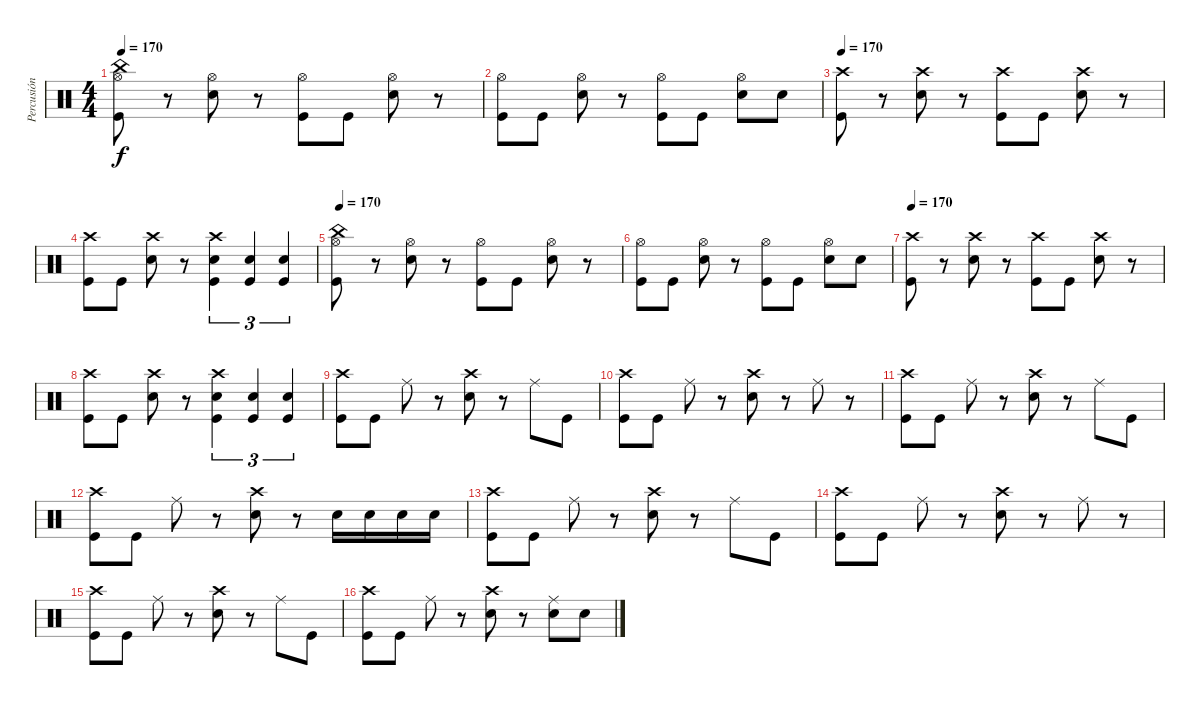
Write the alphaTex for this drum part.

\track ("Percusión  Gabriela" "Percusión ") {instrument percussion}
\staff {score}
\articulation defaults
\ts (4 4)
\tempo 170
\clef neutral
\ks c
("Hi-Hat (open)" "China (hit)" "Kick (hit)").8{dy f} r.8 ("Hi-Hat (open)" "Snare (hit) 2").8 r.8 ("Hi-Hat (open)" "Kick (hit)").8 "Kick (hit)".8 ("Snare (hit) 2" "Hi-Hat (open)").8 r.8 |
("Hi-Hat (open)" "Kick (hit)").8 "Kick (hit)".8 ("Hi-Hat (open)" "Snare (hit) 2").8 r.8 ("Hi-Hat (open)" "Kick (hit)").8 "Kick (hit)".8 ("Hi-Hat (open)" "Snare (hit) 2").8 "Snare (hit) 2".8 |
\tempo 170
("Crash high (hit)" "Kick (hit)").8 r.8 ("Crash high (hit)" "Snare (hit) 2").8 r.8 ("Crash high (hit)" "Kick (hit)").8 "Kick (hit)".8 ("Snare (hit) 2" "Crash high (hit)").8 r.8 |
("Crash high (hit)" "Kick (hit)").8 "Kick (hit)".8 ("Crash high (hit)" "Snare (hit) 2").8 r.8 ("Crash high (hit)" "Snare (hit) 2" "Kick (hit)").4{tu (3 2)} ("Snare (hit) 2" "Kick (hit)").4{tu (3 2)} ("Kick (hit)" "Snare (hit) 2").4{tu (3 2)} |
\tempo 170
("Hi-Hat (open)" "China (hit)" "Kick (hit)").8 r.8 ("Hi-Hat (open)" "Snare (hit) 2").8 r.8 ("Hi-Hat (open)" "Kick (hit)").8 "Kick (hit)".8 ("Snare (hit) 2" "Hi-Hat (open)").8 r.8 |
("Hi-Hat (open)" "Kick (hit)").8 "Kick (hit)".8 ("Hi-Hat (open)" "Snare (hit) 2").8 r.8 ("Hi-Hat (open)" "Kick (hit)").8 "Kick (hit)".8 ("Hi-Hat (open)" "Snare (hit) 2").8 "Snare (hit) 2".8 |
\tempo 170
("Crash high (hit)" "Kick (hit)").8 r.8 ("Crash high (hit)" "Snare (hit) 2").8 r.8 ("Crash high (hit)" "Kick (hit)").8 "Kick (hit)".8 ("Snare (hit) 2" "Crash high (hit)").8 r.8 |
("Crash high (hit)" "Kick (hit)").8 "Kick (hit)".8 ("Crash high (hit)" "Snare (hit) 2").8 r.8 ("Crash high (hit)" "Snare (hit) 2" "Kick (hit)").4{tu (3 2)} ("Snare (hit) 2" "Kick (hit)").4{tu (3 2)} ("Kick (hit)" "Snare (hit) 2").4{tu (3 2)} |
("Crash high (hit)" "Kick (hit)").8 "Kick (hit)".8 "Ride (middle)".8 r.8 ("Snare (hit) 2" "Crash high (hit)").8 r.8 "Ride (middle)".8 "Kick (hit)".8 |
("Crash high (hit)" "Kick (hit)").8 "Kick (hit)".8 "Ride (middle)".8 r.8 ("Snare (hit) 2" "Crash high (hit)").8 r.8 "Ride (middle)".8 r.8 |
("Crash high (hit)" "Kick (hit)").8 "Kick (hit)".8 "Ride (middle)".8 r.8 ("Snare (hit) 2" "Crash high (hit)").8 r.8 "Ride (middle)".8 "Kick (hit)".8 |
("Crash high (hit)" "Kick (hit)").8 "Kick (hit)".8 "Ride (middle)".8 r.8 ("Snare (hit) 2" "Crash high (hit)").8 r.8 "Snare (hit) 2".16 "Snare (hit) 2".16 "Snare (hit) 2".16 "Snare (hit) 2".16 |
("Crash high (hit)" "Kick (hit)").8 "Kick (hit)".8 "Ride (middle)".8 r.8 ("Snare (hit) 2" "Crash high (hit)").8 r.8 "Ride (middle)".8 "Kick (hit)".8 |
("Crash high (hit)" "Kick (hit)").8 "Kick (hit)".8 "Ride (middle)".8 r.8 ("Snare (hit) 2" "Crash high (hit)").8 r.8 "Ride (middle)".8 r.8 |
("Crash high (hit)" "Kick (hit)").8 "Kick (hit)".8 "Ride (middle)".8 r.8 ("Snare (hit) 2" "Crash high (hit)").8 r.8 "Ride (middle)".8 "Kick (hit)".8 |
("Crash high (hit)" "Kick (hit)").8 "Kick (hit)".8 "Ride (middle)".8 r.8 ("Snare (hit) 2" "Crash high (hit)").8 r.8 ("Ride (middle)" "Snare (hit) 2").8 "Snare (hit) 2".8
